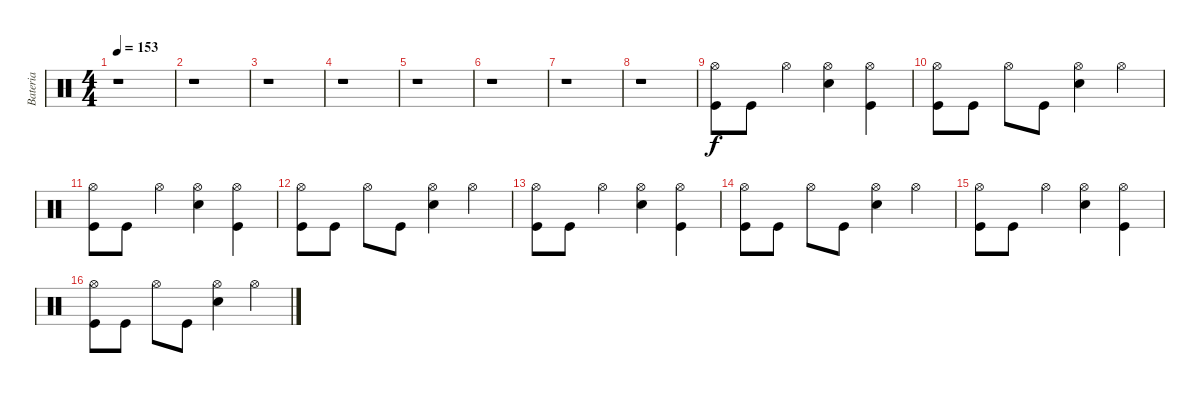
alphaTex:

\track ("Bateria" "Bateria") {instrument percussion}
\staff {score}
\articulation defaults
\ts (4 4)
\tempo 153
\clef neutral
\ks c
r.1{dy f} |
r.1 |
r.1 |
r.1 |
r.1 |
r.1 |
r.1 |
r.1 |
("Hi-Hat (open)" "Kick (hit)").8 "Kick (hit)".8 "Hi-Hat (open)".4 ("Hi-Hat (open)" "Snare (hit) 2").4 ("Hi-Hat (open)" "Kick (hit)").4 |
("Hi-Hat (open)" "Kick (hit)").8 "Kick (hit)".8 "Hi-Hat (open)".8 "Kick (hit)".8 ("Hi-Hat (open)" "Snare (hit) 2").4 "Hi-Hat (open)".4 |
("Hi-Hat (open)" "Kick (hit)").8 "Kick (hit)".8 "Hi-Hat (open)".4 ("Hi-Hat (open)" "Snare (hit) 2").4 ("Hi-Hat (open)" "Kick (hit)").4 |
("Hi-Hat (open)" "Kick (hit)").8 "Kick (hit)".8 "Hi-Hat (open)".8 "Kick (hit)".8 ("Hi-Hat (open)" "Snare (hit) 2").4 "Hi-Hat (open)".4 |
("Hi-Hat (open)" "Kick (hit)").8 "Kick (hit)".8 "Hi-Hat (open)".4 ("Hi-Hat (open)" "Snare (hit) 2").4 ("Hi-Hat (open)" "Kick (hit)").4 |
("Hi-Hat (open)" "Kick (hit)").8 "Kick (hit)".8 "Hi-Hat (open)".8 "Kick (hit)".8 ("Hi-Hat (open)" "Snare (hit) 2").4 "Hi-Hat (open)".4 |
("Hi-Hat (open)" "Kick (hit)").8 "Kick (hit)".8 "Hi-Hat (open)".4 ("Hi-Hat (open)" "Snare (hit) 2").4 ("Hi-Hat (open)" "Kick (hit)").4 |
("Hi-Hat (open)" "Kick (hit)").8 "Kick (hit)".8 "Hi-Hat (open)".8 "Kick (hit)".8 ("Hi-Hat (open)" "Snare (hit) 2").4 "Hi-Hat (open)".4
